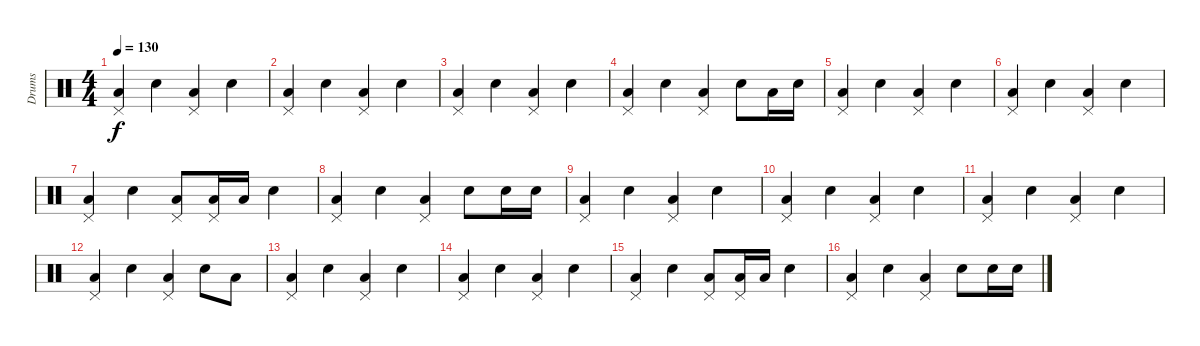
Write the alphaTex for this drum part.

\track ("Drums" "Drums") {instrument percussion}
\staff {score}
\articulation defaults
\ts (4 4)
\tempo 130
\clef neutral
\ks c
("Low Tom (hit)" "Pedal Hi-Hat (hit)").4{dy f} "Snare (hit) 2".4 ("Low Tom (hit)" "Pedal Hi-Hat (hit)").4 "Snare (hit) 2".4 |
("Low Tom (hit)" "Pedal Hi-Hat (hit)").4 "Snare (hit) 2".4 ("Low Tom (hit)" "Pedal Hi-Hat (hit)").4 "Snare (hit) 2".4 |
("Low Tom (hit)" "Pedal Hi-Hat (hit)").4 "Snare (hit) 2".4 ("Low Tom (hit)" "Pedal Hi-Hat (hit)").4 "Snare (hit) 2".4 |
("Low Tom (hit)" "Pedal Hi-Hat (hit)").4 "Snare (hit) 2".4 ("Low Tom (hit)" "Pedal Hi-Hat (hit)").4 "Snare (hit) 2".8 "Low Tom (hit)".16 "Snare (hit) 2".16 |
("Low Tom (hit)" "Pedal Hi-Hat (hit)").4 "Snare (hit) 2".4 ("Low Tom (hit)" "Pedal Hi-Hat (hit)").4 "Snare (hit) 2".4 |
("Low Tom (hit)" "Pedal Hi-Hat (hit)").4 "Snare (hit) 2".4 ("Low Tom (hit)" "Pedal Hi-Hat (hit)").4 "Snare (hit) 2".4 |
("Low Tom (hit)" "Pedal Hi-Hat (hit)").4 "Snare (hit) 2".4 ("Low Tom (hit)" "Pedal Hi-Hat (hit)").8 ("Low Tom (hit)" "Pedal Hi-Hat (hit)").16 "Low Tom (hit)".16 "Snare (hit) 2".4 |
("Low Tom (hit)" "Pedal Hi-Hat (hit)").4 "Snare (hit) 2".4 ("Low Tom (hit)" "Pedal Hi-Hat (hit)").4 "Snare (hit) 2".8 "Snare (hit) 2".16 "Snare (hit) 2".16 |
("Low Tom (hit)" "Pedal Hi-Hat (hit)").4 "Snare (hit) 2".4 ("Low Tom (hit)" "Pedal Hi-Hat (hit)").4 "Snare (hit) 2".4 |
("Low Tom (hit)" "Pedal Hi-Hat (hit)").4 "Snare (hit) 2".4 ("Low Tom (hit)" "Pedal Hi-Hat (hit)").4 "Snare (hit) 2".4 |
("Low Tom (hit)" "Pedal Hi-Hat (hit)").4 "Snare (hit) 2".4 ("Low Tom (hit)" "Pedal Hi-Hat (hit)").4 "Snare (hit) 2".4 |
("Low Tom (hit)" "Pedal Hi-Hat (hit)").4 "Snare (hit) 2".4 ("Low Tom (hit)" "Pedal Hi-Hat (hit)").4 "Snare (hit) 2".8 "Low Tom (hit)".8 |
("Low Tom (hit)" "Pedal Hi-Hat (hit)").4 "Snare (hit) 2".4 ("Low Tom (hit)" "Pedal Hi-Hat (hit)").4 "Snare (hit) 2".4 |
("Low Tom (hit)" "Pedal Hi-Hat (hit)").4 "Snare (hit) 2".4 ("Low Tom (hit)" "Pedal Hi-Hat (hit)").4 "Snare (hit) 2".4 |
("Low Tom (hit)" "Pedal Hi-Hat (hit)").4 "Snare (hit) 2".4 ("Low Tom (hit)" "Pedal Hi-Hat (hit)").8 ("Low Tom (hit)" "Pedal Hi-Hat (hit)").16 "Low Tom (hit)".16 "Snare (hit) 2".4 |
("Low Tom (hit)" "Pedal Hi-Hat (hit)").4 "Snare (hit) 2".4 ("Low Tom (hit)" "Pedal Hi-Hat (hit)").4 "Snare (hit) 2".8 "Snare (hit) 2".16 "Snare (hit) 2".16
